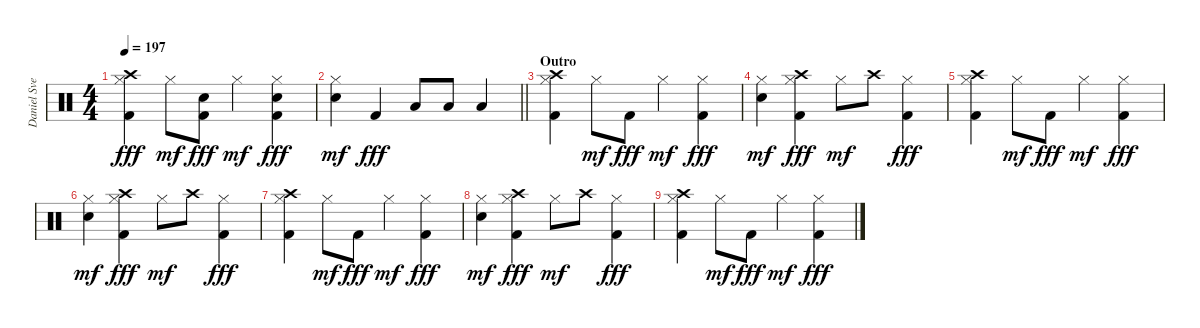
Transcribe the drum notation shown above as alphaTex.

\track ("Daniel Svensson" "Daniel Sve") {instrument percussion}
\staff {score}
\articulation defaults
\ts (4 4)
\tempo 197
\clef neutral
\ks c
("Crash high (hit)" "Hi-Hat (closed)" "Kick (hit) 2").4{dy fff} "Hi-Hat (closed)".8{dy mf} ("Electric Snare (hit)" "Kick (hit) 2").8{dy fff} "Hi-Hat (closed)".4{dy mf} ("Hi-Hat (closed)" "Electric Snare (hit)" "Kick (hit) 2").4{dy fff} |
\barLineRight lightlight
("Hi-Hat (closed)" "Electric Snare (hit)").4{dy mf} "Kick (hit) 2".4{dy fff} "Low Floor Tom (hit)".8 "Low Floor Tom (hit)".8 "Low Floor Tom (hit)".4 |
\section ("" "Outro")
("Crash high (hit)" "Hi-Hat (closed)" "Kick (hit) 2").4 "Hi-Hat (closed)".8{dy mf} "Kick (hit) 2".8{dy fff} "Hi-Hat (closed)".4{dy mf} ("Hi-Hat (closed)" "Kick (hit) 2").4{dy fff} |
("Hi-Hat (closed)" "Electric Snare (hit)").4{dy mf} ("Crash high (hit)" "Hi-Hat (closed)" "Kick (hit) 2").4{dy fff} "Hi-Hat (closed)".8{dy mf} "Crash high (hit)".8 ("Hi-Hat (closed)" "Kick (hit) 2").4{dy fff} |
("Crash high (hit)" "Hi-Hat (closed)" "Kick (hit) 2").4 "Hi-Hat (closed)".8{dy mf} "Kick (hit) 2".8{dy fff} "Hi-Hat (closed)".4{dy mf} ("Hi-Hat (closed)" "Kick (hit) 2").4{dy fff} |
("Hi-Hat (closed)" "Electric Snare (hit)").4{dy mf} ("Crash high (hit)" "Hi-Hat (closed)" "Kick (hit) 2").4{dy fff} "Hi-Hat (closed)".8{dy mf} "Crash high (hit)".8 ("Hi-Hat (closed)" "Kick (hit) 2").4{dy fff} |
("Crash high (hit)" "Hi-Hat (closed)" "Kick (hit) 2").4 "Hi-Hat (closed)".8{dy mf} "Kick (hit) 2".8{dy fff} "Hi-Hat (closed)".4{dy mf} ("Hi-Hat (closed)" "Kick (hit) 2").4{dy fff} |
("Hi-Hat (closed)" "Electric Snare (hit)").4{dy mf} ("Crash high (hit)" "Hi-Hat (closed)" "Kick (hit) 2").4{dy fff} "Hi-Hat (closed)".8{dy mf} "Crash high (hit)".8 ("Hi-Hat (closed)" "Kick (hit) 2").4{dy fff} |
("Crash high (hit)" "Hi-Hat (closed)" "Kick (hit) 2").4 "Hi-Hat (closed)".8{dy mf} "Kick (hit) 2".8{dy fff} "Hi-Hat (closed)".4{dy mf} ("Hi-Hat (closed)" "Kick (hit) 2").4{dy fff}
